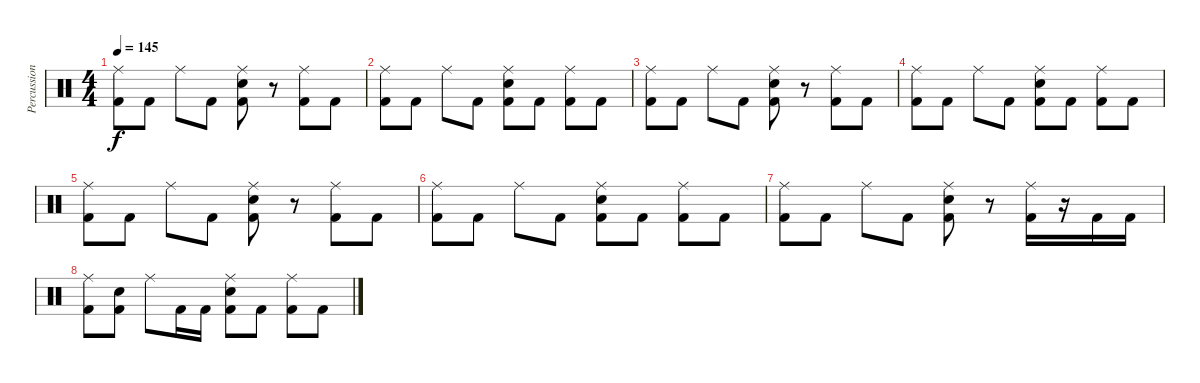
\track ("Percussion" "Percussion") {instrument percussion}
\staff {score}
\articulation defaults
\ts (4 4)
\tempo 145
\clef neutral
\ks c
("Ride (middle)" "Kick (hit) 2").8{dy f} "Kick (hit) 2".8 "Ride (middle)".8 "Kick (hit) 2".8 ("Ride (middle)" "Snare (hit) 2" "Kick (hit) 2").8 r.8 ("Ride (middle)" "Kick (hit) 2").8 "Kick (hit) 2".8 |
("Ride (middle)" "Kick (hit) 2").8 "Kick (hit) 2".8 "Ride (middle)".8 "Kick (hit) 2".8 ("Ride (middle)" "Snare (hit) 2" "Kick (hit) 2").8 "Kick (hit) 2".8 ("Ride (middle)" "Kick (hit) 2").8 "Kick (hit) 2".8 |
("Ride (middle)" "Kick (hit) 2").8 "Kick (hit) 2".8 "Ride (middle)".8 "Kick (hit) 2".8 ("Ride (middle)" "Snare (hit) 2" "Kick (hit) 2").8 r.8 ("Ride (middle)" "Kick (hit) 2").8 "Kick (hit) 2".8 |
("Ride (middle)" "Kick (hit) 2").8 "Kick (hit) 2".8 "Ride (middle)".8 "Kick (hit) 2".8 ("Ride (middle)" "Snare (hit) 2" "Kick (hit) 2").8 "Kick (hit) 2".8 ("Ride (middle)" "Kick (hit) 2").8 "Kick (hit) 2".8 |
("Ride (middle)" "Kick (hit) 2").8 "Kick (hit) 2".8 "Ride (middle)".8 "Kick (hit) 2".8 ("Ride (middle)" "Snare (hit) 2" "Kick (hit) 2").8 r.8 ("Ride (middle)" "Kick (hit) 2").8 "Kick (hit) 2".8 |
("Ride (middle)" "Kick (hit) 2").8 "Kick (hit) 2".8 "Ride (middle)".8 "Kick (hit) 2".8 ("Ride (middle)" "Snare (hit) 2" "Kick (hit) 2").8 "Kick (hit) 2".8 ("Ride (middle)" "Kick (hit) 2").8 "Kick (hit) 2".8 |
("Ride (middle)" "Kick (hit) 2").8 "Kick (hit) 2".8 "Ride (middle)".8 "Kick (hit) 2".8 ("Ride (middle)" "Snare (hit) 2" "Kick (hit) 2").8 r.8 ("Ride (middle)" "Kick (hit) 2").16 r.16 "Kick (hit) 2".16 "Kick (hit) 2".16 |
("Ride (middle)" "Kick (hit) 2").8 ("Snare (hit) 2" "Kick (hit) 2").8 "Ride (middle)".8 "Kick (hit) 2".16 "Kick (hit) 2".16 ("Ride (middle)" "Snare (hit) 2" "Kick (hit) 2").8 "Kick (hit) 2".8 ("Ride (middle)" "Kick (hit) 2").8 "Kick (hit) 2".8
